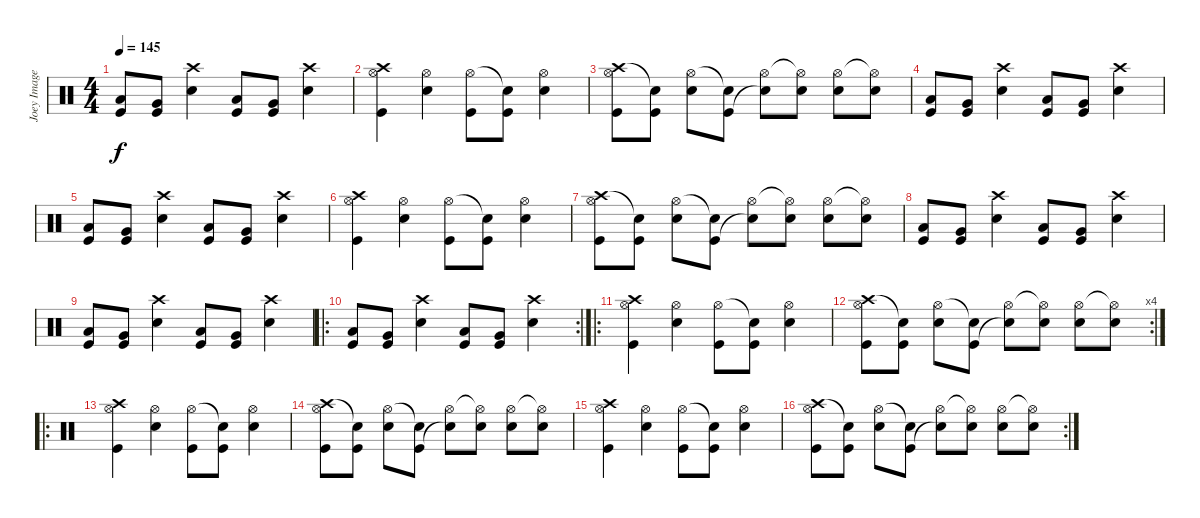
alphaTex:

\track ("Joey Image" "Joey Image") {instrument percussion}
\staff {score}
\articulation defaults
\ts (4 4)
\tempo 145
\clef neutral
\ks c
("Low Tom (hit)" "Kick (hit)").8{dy f} ("Very Low Tom (hit)" "Kick (hit)").8 ("Crash high (hit)" "Snare (hit) 2").4 ("Low Tom (hit)" "Kick (hit)").8 ("Very Low Tom (hit)" "Kick (hit)").8 ("Crash high (hit)" "Snare (hit) 2").4 |
("Crash high (hit)" "Hi-Hat (open)" "Kick (hit)").4 ("Hi-Hat (open)" "Snare (hit) 2").4 ("Hi-Hat (open)" "Kick (hit)").8 ("Snare (hit)"{t} "Kick (hit)").8 ("Hi-Hat (open)" "Snare (hit) 2").4 |
("Crash high (hit)" "Hi-Hat (open)" "Kick (hit)").8 ("Snare (hit)"{t} "Kick (hit)").8 ("Hi-Hat (open)" "Snare (hit) 2").8 ("Snare (hit)"{t} "Kick (hit)").8 ("Hi-Hat (open)" "Snare (hit)"{t}).8 ("Hi-Hat (open)"{t} "Snare (hit) 2").8 ("Hi-Hat (open)" "Snare (hit) 2").8 ("Hi-Hat (open)"{t} "Snare (hit) 2").8 |
("Low Tom (hit)" "Kick (hit)").8 ("Very Low Tom (hit)" "Kick (hit)").8 ("Crash high (hit)" "Snare (hit) 2").4 ("Low Tom (hit)" "Kick (hit)").8 ("Very Low Tom (hit)" "Kick (hit)").8 ("Crash high (hit)" "Snare (hit) 2").4 |
("Low Tom (hit)" "Kick (hit)").8 ("Very Low Tom (hit)" "Kick (hit)").8 ("Crash high (hit)" "Snare (hit) 2").4 ("Low Tom (hit)" "Kick (hit)").8 ("Very Low Tom (hit)" "Kick (hit)").8 ("Crash high (hit)" "Snare (hit) 2").4 |
("Crash high (hit)" "Hi-Hat (open)" "Kick (hit)").4 ("Hi-Hat (open)" "Snare (hit) 2").4 ("Hi-Hat (open)" "Kick (hit)").8 ("Snare (hit)"{t} "Kick (hit)").8 ("Hi-Hat (open)" "Snare (hit) 2").4 |
("Crash high (hit)" "Hi-Hat (open)" "Kick (hit)").8 ("Snare (hit)"{t} "Kick (hit)").8 ("Hi-Hat (open)" "Snare (hit) 2").8 ("Snare (hit)"{t} "Kick (hit)").8 ("Hi-Hat (open)" "Snare (hit)"{t}).8 ("Hi-Hat (open)"{t} "Snare (hit) 2").8 ("Hi-Hat (open)" "Snare (hit) 2").8 ("Hi-Hat (open)"{t} "Snare (hit) 2").8 |
("Low Tom (hit)" "Kick (hit)").8 ("Very Low Tom (hit)" "Kick (hit)").8 ("Crash high (hit)" "Snare (hit) 2").4 ("Low Tom (hit)" "Kick (hit)").8 ("Very Low Tom (hit)" "Kick (hit)").8 ("Crash high (hit)" "Snare (hit) 2").4 |
("Low Tom (hit)" "Kick (hit)").8 ("Very Low Tom (hit)" "Kick (hit)").8 ("Crash high (hit)" "Snare (hit) 2").4 ("Low Tom (hit)" "Kick (hit)").8 ("Very Low Tom (hit)" "Kick (hit)").8 ("Crash high (hit)" "Snare (hit) 2").4 |
\ro
\rc 2
("Low Tom (hit)" "Kick (hit)").8 ("Very Low Tom (hit)" "Kick (hit)").8 ("Crash high (hit)" "Snare (hit) 2").4 ("Low Tom (hit)" "Kick (hit)").8 ("Very Low Tom (hit)" "Kick (hit)").8 ("Crash high (hit)" "Snare (hit) 2").4 |
\ro
("Crash high (hit)" "Hi-Hat (open)" "Kick (hit)").4 ("Hi-Hat (open)" "Snare (hit) 2").4 ("Hi-Hat (open)" "Kick (hit)").8 ("Snare (hit)"{t} "Kick (hit)").8 ("Hi-Hat (open)" "Snare (hit) 2").4 |
\rc 4
("Crash high (hit)" "Hi-Hat (open)" "Kick (hit)").8 ("Snare (hit)"{t} "Kick (hit)").8 ("Hi-Hat (open)" "Snare (hit) 2").8 ("Snare (hit)"{t} "Kick (hit)").8 ("Hi-Hat (open)" "Snare (hit)"{t}).8 ("Hi-Hat (open)"{t} "Snare (hit) 2").8 ("Hi-Hat (open)" "Snare (hit) 2").8 ("Hi-Hat (open)"{t} "Snare (hit) 2").8 |
\ro
("Crash high (hit)" "Hi-Hat (open)" "Kick (hit)").4 ("Hi-Hat (open)" "Snare (hit) 2").4 ("Hi-Hat (open)" "Kick (hit)").8 ("Snare (hit)"{t} "Kick (hit)").8 ("Hi-Hat (open)" "Snare (hit) 2").4 |
("Crash high (hit)" "Hi-Hat (open)" "Kick (hit)").8 ("Snare (hit)"{t} "Kick (hit)").8 ("Hi-Hat (open)" "Snare (hit) 2").8 ("Snare (hit)"{t} "Kick (hit)").8 ("Hi-Hat (open)" "Snare (hit)"{t}).8 ("Hi-Hat (open)"{t} "Snare (hit) 2").8 ("Hi-Hat (open)" "Snare (hit) 2").8 ("Hi-Hat (open)"{t} "Snare (hit) 2").8 |
("Crash high (hit)" "Hi-Hat (open)" "Kick (hit)").4 ("Hi-Hat (open)" "Snare (hit) 2").4 ("Hi-Hat (open)" "Kick (hit)").8 ("Snare (hit)"{t} "Kick (hit)").8 ("Hi-Hat (open)" "Snare (hit) 2").4 |
\rc 2
("Crash high (hit)" "Hi-Hat (open)" "Kick (hit)").8 ("Snare (hit)"{t} "Kick (hit)").8 ("Hi-Hat (open)" "Snare (hit) 2").8 ("Snare (hit)"{t} "Kick (hit)").8 ("Hi-Hat (open)" "Snare (hit)"{t}).8 ("Hi-Hat (open)"{t} "Snare (hit) 2").8 ("Hi-Hat (open)" "Snare (hit) 2").8 ("Hi-Hat (open)"{t} "Snare (hit) 2").8
